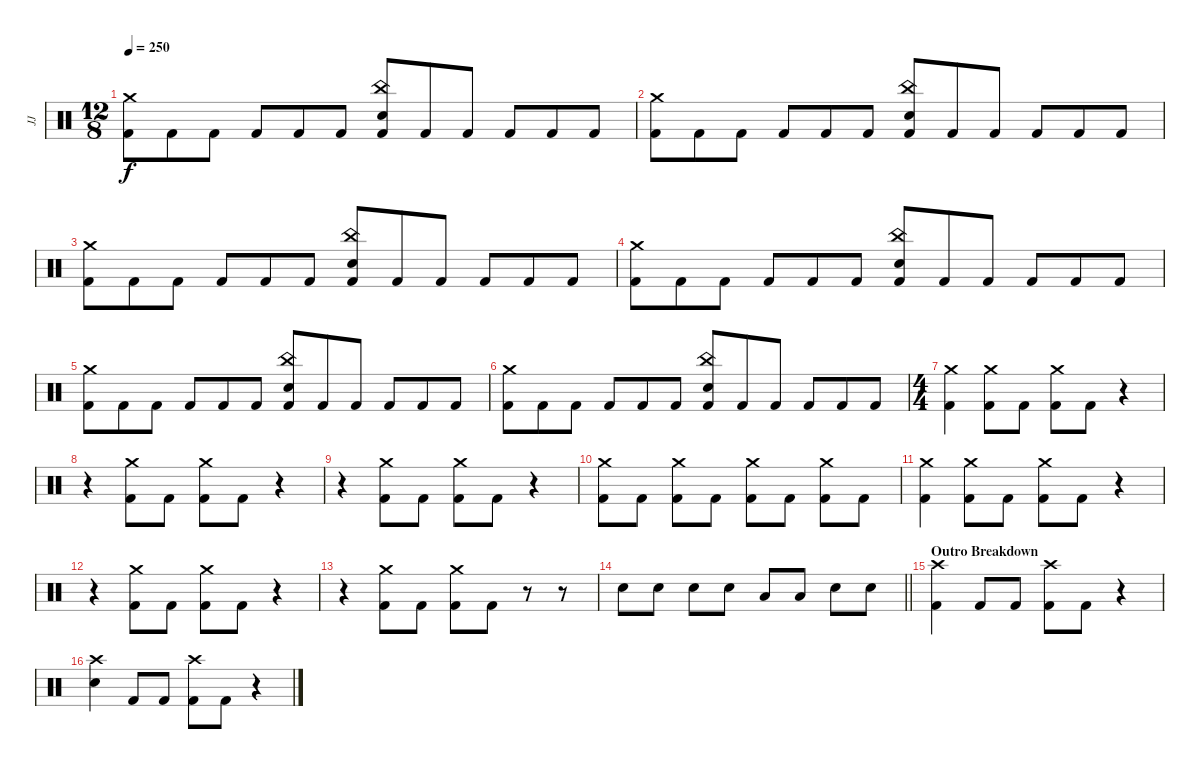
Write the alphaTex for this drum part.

\track ("JJ" "JJ") {instrument percussion}
\staff {score}
\articulation defaults
\ts (12 8)
\tempo 250
\clef neutral
\ks c
("Crash medium (hit)" "Kick (hit) 2").8{dy f} "Kick (hit) 2".8 "Kick (hit) 2".8 "Kick (hit) 2".8 "Kick (hit) 2".8 "Kick (hit) 2".8 ("China (hit)" "Electric Snare (hit)" "Kick (hit) 2").8 "Kick (hit) 2".8 "Kick (hit) 2".8 "Kick (hit) 2".8 "Kick (hit) 2".8 "Kick (hit) 2".8 |
("Crash medium (hit)" "Kick (hit) 2").8 "Kick (hit) 2".8 "Kick (hit) 2".8 "Kick (hit) 2".8 "Kick (hit) 2".8 "Kick (hit) 2".8 ("China (hit)" "Electric Snare (hit)" "Kick (hit) 2").8 "Kick (hit) 2".8 "Kick (hit) 2".8 "Kick (hit) 2".8 "Kick (hit) 2".8 "Kick (hit) 2".8 |
("Crash medium (hit)" "Kick (hit) 2").8 "Kick (hit) 2".8 "Kick (hit) 2".8 "Kick (hit) 2".8 "Kick (hit) 2".8 "Kick (hit) 2".8 ("China (hit)" "Electric Snare (hit)" "Kick (hit) 2").8 "Kick (hit) 2".8 "Kick (hit) 2".8 "Kick (hit) 2".8 "Kick (hit) 2".8 "Kick (hit) 2".8 |
("Crash medium (hit)" "Kick (hit) 2").8 "Kick (hit) 2".8 "Kick (hit) 2".8 "Kick (hit) 2".8 "Kick (hit) 2".8 "Kick (hit) 2".8 ("China (hit)" "Electric Snare (hit)" "Kick (hit) 2").8 "Kick (hit) 2".8 "Kick (hit) 2".8 "Kick (hit) 2".8 "Kick (hit) 2".8 "Kick (hit) 2".8 |
("Crash medium (hit)" "Kick (hit) 2").8 "Kick (hit) 2".8 "Kick (hit) 2".8 "Kick (hit) 2".8 "Kick (hit) 2".8 "Kick (hit) 2".8 ("China (hit)" "Electric Snare (hit)" "Kick (hit) 2").8 "Kick (hit) 2".8 "Kick (hit) 2".8 "Kick (hit) 2".8 "Kick (hit) 2".8 "Kick (hit) 2".8 |
("Crash medium (hit)" "Kick (hit) 2").8 "Kick (hit) 2".8 "Kick (hit) 2".8 "Kick (hit) 2".8 "Kick (hit) 2".8 "Kick (hit) 2".8 ("China (hit)" "Electric Snare (hit)" "Kick (hit) 2").8 "Kick (hit) 2".8 "Kick (hit) 2".8 "Kick (hit) 2".8 "Kick (hit) 2".8 "Kick (hit) 2".8 |
\ts (4 4)
("Crash medium (hit)" "Kick (hit) 2").4 ("Crash medium (hit)" "Kick (hit) 2").8 "Kick (hit) 2".8 ("Crash medium (hit)" "Kick (hit) 2").8 "Kick (hit) 2".8 r.4 |
r.4 ("Crash medium (hit)" "Kick (hit) 2").8 "Kick (hit) 2".8 ("Crash medium (hit)" "Kick (hit) 2").8 "Kick (hit) 2".8 r.4 |
r.4 ("Crash medium (hit)" "Kick (hit) 2").8 "Kick (hit) 2".8 ("Crash medium (hit)" "Kick (hit) 2").8 "Kick (hit) 2".8 r.4 |
("Crash medium (hit)" "Kick (hit) 2").8 "Kick (hit) 2".8 ("Crash medium (hit)" "Kick (hit) 2").8 "Kick (hit) 2".8 ("Crash medium (hit)" "Kick (hit) 2").8 "Kick (hit) 2".8 ("Crash medium (hit)" "Kick (hit) 2").8 "Kick (hit) 2".8 |
("Crash medium (hit)" "Kick (hit) 2").4 ("Crash medium (hit)" "Kick (hit) 2").8 "Kick (hit) 2".8 ("Crash medium (hit)" "Kick (hit) 2").8 "Kick (hit) 2".8 r.4 |
r.4 ("Crash medium (hit)" "Kick (hit) 2").8 "Kick (hit) 2".8 ("Crash medium (hit)" "Kick (hit) 2").8 "Kick (hit) 2".8 r.4 |
r.4 ("Crash medium (hit)" "Kick (hit) 2").8 "Kick (hit) 2".8 ("Crash medium (hit)" "Kick (hit) 2").8 "Kick (hit) 2".8 r.8 r.8 |
\barLineRight lightlight "Electric Snare (hit)".8 "Electric Snare (hit)".8 "Electric Snare (hit)".8 "Electric Snare (hit)".8 "Low Floor Tom (hit)".8 "Low Floor Tom (hit)".8 "Electric Snare (hit)".8 "Electric Snare (hit)".8
|
\section ("" "Outro Breakdown")
("Crash high (hit)" "Kick (hit) 2").4 "Kick (hit) 2".8 "Kick (hit) 2".8 ("Crash high (hit)" "Kick (hit) 2").8 "Kick (hit) 2".8 r.4 |
("Crash high (hit)" "Electric Snare (hit)").4 "Kick (hit) 2".8 "Kick (hit) 2".8 ("Crash high (hit)" "Kick (hit) 2").8 "Kick (hit) 2".8 r.4
